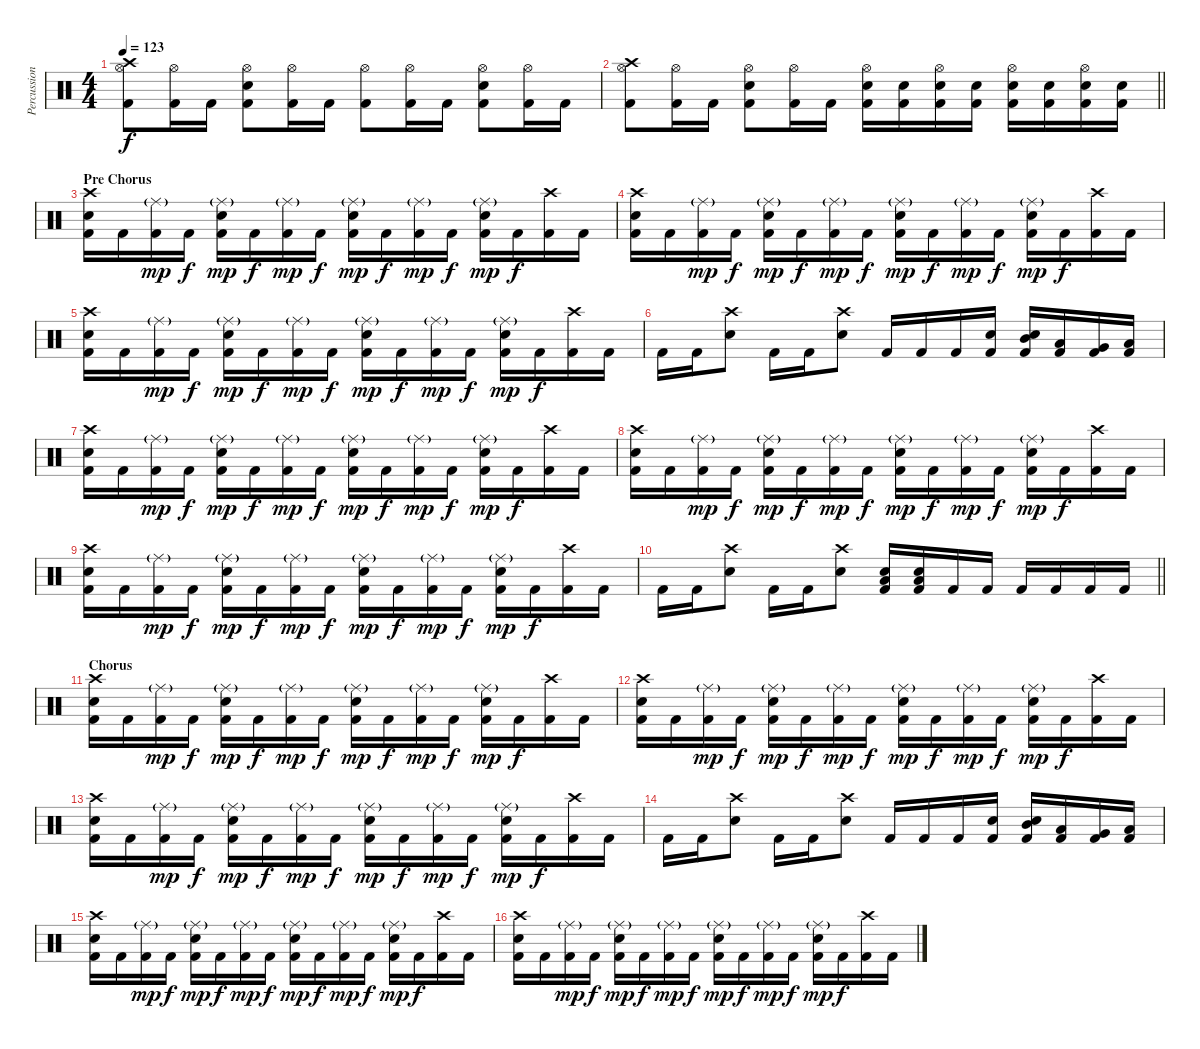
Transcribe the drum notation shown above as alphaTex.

\track ("Percussion" "Percussion") {instrument percussion}
\staff {score}
\articulation defaults
\ts (4 4)
\tempo 123
\clef neutral
\ks c
("Hi-Hat (open)" "Kick (hit) 2" "Crash high (hit)").8{dy f} ("Hi-Hat (open)" "Kick (hit) 2").16 "Kick (hit) 2".16 ("Hi-Hat (open)" "Snare (hit) 2" "Kick (hit) 2").8 ("Hi-Hat (open)" "Kick (hit) 2").16 "Kick (hit) 2".16 ("Hi-Hat (open)" "Kick (hit) 2").8 ("Hi-Hat (open)" "Kick (hit) 2").16 "Kick (hit) 2".16 ("Hi-Hat (open)" "Snare (hit) 2" "Kick (hit) 2").8 ("Hi-Hat (open)" "Kick (hit) 2").16 "Kick (hit) 2".16 |
\barLineRight lightlight
("Hi-Hat (open)" "Kick (hit) 2" "Crash high (hit)").8 ("Hi-Hat (open)" "Kick (hit) 2").16 "Kick (hit) 2".16 ("Hi-Hat (open)" "Snare (hit) 2" "Kick (hit) 2").8 ("Hi-Hat (open)" "Kick (hit) 2").16 "Kick (hit) 2".16 ("Hi-Hat (open)" "Snare (hit) 2" "Kick (hit) 2").16 ("Snare (hit) 2" "Kick (hit) 2").16 ("Hi-Hat (open)" "Snare (hit) 2" "Kick (hit) 2").16 ("Snare (hit) 2" "Kick (hit) 2").16 ("Hi-Hat (open)" "Snare (hit) 2" "Kick (hit) 2").16 ("Snare (hit) 2" "Kick (hit) 2").16 ("Hi-Hat (open)" "Snare (hit) 2" "Kick (hit) 2").16 ("Snare (hit) 2" "Kick (hit) 2").16 |
\section ("" "Pre Chorus")
("Snare (hit) 2" "Kick (hit) 2" "Crash high (hit)").16 "Kick (hit) 2".16 ("Ride (middle)"{g} "Kick (hit) 2").16{dy mp} "Kick (hit) 2".16{dy f} ("Ride (middle)"{g} "Snare (hit) 2" "Kick (hit) 2").16{dy mp} "Kick (hit) 2".16{dy f} ("Ride (middle)"{g} "Kick (hit) 2").16{dy mp} "Kick (hit) 2".16{dy f} ("Ride (middle)"{g} "Snare (hit) 2" "Kick (hit) 2").16{dy mp} "Kick (hit) 2".16{dy f} ("Ride (middle)"{g} "Kick (hit) 2").16{dy mp} "Kick (hit) 2".16{dy f} ("Ride (middle)"{g} "Snare (hit) 2" "Kick (hit) 2").16{dy mp} "Kick (hit) 2".16{dy f} ("Kick (hit) 2" "Crash high (hit)").16 "Kick (hit) 2".16 |
("Snare (hit) 2" "Kick (hit) 2" "Crash high (hit)").16 "Kick (hit) 2".16 ("Ride (middle)"{g} "Kick (hit) 2").16{dy mp} "Kick (hit) 2".16{dy f} ("Ride (middle)"{g} "Snare (hit) 2" "Kick (hit) 2").16{dy mp} "Kick (hit) 2".16{dy f} ("Ride (middle)"{g} "Kick (hit) 2").16{dy mp} "Kick (hit) 2".16{dy f} ("Ride (middle)"{g} "Snare (hit) 2" "Kick (hit) 2").16{dy mp} "Kick (hit) 2".16{dy f} ("Ride (middle)"{g} "Kick (hit) 2").16{dy mp} "Kick (hit) 2".16{dy f} ("Ride (middle)"{g} "Snare (hit) 2" "Kick (hit) 2").16{dy mp} "Kick (hit) 2".16{dy f} ("Kick (hit) 2" "Crash high (hit)").16 "Kick (hit) 2".16 |
("Snare (hit) 2" "Kick (hit) 2" "Crash high (hit)").16 "Kick (hit) 2".16 ("Ride (middle)"{g} "Kick (hit) 2").16{dy mp} "Kick (hit) 2".16{dy f} ("Ride (middle)"{g} "Snare (hit) 2" "Kick (hit) 2").16{dy mp} "Kick (hit) 2".16{dy f} ("Ride (middle)"{g} "Kick (hit) 2").16{dy mp} "Kick (hit) 2".16{dy f} ("Ride (middle)"{g} "Snare (hit) 2" "Kick (hit) 2").16{dy mp} "Kick (hit) 2".16{dy f} ("Ride (middle)"{g} "Kick (hit) 2").16{dy mp} "Kick (hit) 2".16{dy f} ("Ride (middle)"{g} "Snare (hit) 2" "Kick (hit) 2").16{dy mp} "Kick (hit) 2".16{dy f} ("Kick (hit) 2" "Crash high (hit)").16 "Kick (hit) 2".16 |
"Kick (hit) 2".16 "Kick (hit) 2".16 ("Snare (hit) 2" "Crash high (hit)").8 "Kick (hit) 2".16 "Kick (hit) 2".16 ("Snare (hit) 2" "Crash high (hit)").8 "Kick (hit) 2".16 "Kick (hit) 2".16 "Kick (hit) 2".16 ("Snare (hit) 2" "Kick (hit) 2").16 ("Mid Tom (hit)" "Snare (hit) 2" "Kick (hit) 2").16 ("Low Tom (hit)" "Kick (hit) 2").16 ("Very Low Tom (hit)" "Kick (hit) 2").16 ("Low Floor Tom (hit)" "Kick (hit) 2").16 |
("Snare (hit) 2" "Kick (hit) 2" "Crash high (hit)").16 "Kick (hit) 2".16 ("Ride (middle)"{g} "Kick (hit) 2").16{dy mp} "Kick (hit) 2".16{dy f} ("Ride (middle)"{g} "Snare (hit) 2" "Kick (hit) 2").16{dy mp} "Kick (hit) 2".16{dy f} ("Ride (middle)"{g} "Kick (hit) 2").16{dy mp} "Kick (hit) 2".16{dy f} ("Ride (middle)"{g} "Snare (hit) 2" "Kick (hit) 2").16{dy mp} "Kick (hit) 2".16{dy f} ("Ride (middle)"{g} "Kick (hit) 2").16{dy mp} "Kick (hit) 2".16{dy f} ("Ride (middle)"{g} "Snare (hit) 2" "Kick (hit) 2").16{dy mp} "Kick (hit) 2".16{dy f} ("Kick (hit) 2" "Crash high (hit)").16 "Kick (hit) 2".16 |
("Snare (hit) 2" "Kick (hit) 2" "Crash high (hit)").16 "Kick (hit) 2".16 ("Ride (middle)"{g} "Kick (hit) 2").16{dy mp} "Kick (hit) 2".16{dy f} ("Ride (middle)"{g} "Snare (hit) 2" "Kick (hit) 2").16{dy mp} "Kick (hit) 2".16{dy f} ("Ride (middle)"{g} "Kick (hit) 2").16{dy mp} "Kick (hit) 2".16{dy f} ("Ride (middle)"{g} "Snare (hit) 2" "Kick (hit) 2").16{dy mp} "Kick (hit) 2".16{dy f} ("Ride (middle)"{g} "Kick (hit) 2").16{dy mp} "Kick (hit) 2".16{dy f} ("Ride (middle)"{g} "Snare (hit) 2" "Kick (hit) 2").16{dy mp} "Kick (hit) 2".16{dy f} ("Kick (hit) 2" "Crash high (hit)").16 "Kick (hit) 2".16 |
("Snare (hit) 2" "Kick (hit) 2" "Crash high (hit)").16 "Kick (hit) 2".16 ("Ride (middle)"{g} "Kick (hit) 2").16{dy mp} "Kick (hit) 2".16{dy f} ("Ride (middle)"{g} "Snare (hit) 2" "Kick (hit) 2").16{dy mp} "Kick (hit) 2".16{dy f} ("Ride (middle)"{g} "Kick (hit) 2").16{dy mp} "Kick (hit) 2".16{dy f} ("Ride (middle)"{g} "Snare (hit) 2" "Kick (hit) 2").16{dy mp} "Kick (hit) 2".16{dy f} ("Ride (middle)"{g} "Kick (hit) 2").16{dy mp} "Kick (hit) 2".16{dy f} ("Ride (middle)"{g} "Snare (hit) 2" "Kick (hit) 2").16{dy mp} "Kick (hit) 2".16{dy f} ("Kick (hit) 2" "Crash high (hit)").16 "Kick (hit) 2".16 |
\barLineRight lightlight "Kick (hit) 2".16 "Kick (hit) 2".16
("Snare (hit) 2" "Crash high (hit)").8 "Kick (hit) 2".16 "Kick (hit) 2".16 ("Snare (hit) 2" "Crash high (hit)").8 ("Low Floor Tom (hit)" "Snare (hit) 2" "Kick (hit) 2").16 ("Low Floor Tom (hit)" "Snare (hit) 2" "Kick (hit) 2").16 "Kick (hit) 2".16 "Kick (hit) 2".16 "Kick (hit) 2".16 "Kick (hit) 2".16 "Kick (hit) 2".16 "Kick (hit) 2".16 |
\section ("" "Chorus")
("Snare (hit) 2" "Kick (hit) 2" "Crash high (hit)").16 "Kick (hit) 2".16 ("Ride (middle)"{g} "Kick (hit) 2").16{dy mp} "Kick (hit) 2".16{dy f} ("Ride (middle)"{g} "Snare (hit) 2" "Kick (hit) 2").16{dy mp} "Kick (hit) 2".16{dy f} ("Ride (middle)"{g} "Kick (hit) 2").16{dy mp} "Kick (hit) 2".16{dy f} ("Ride (middle)"{g} "Snare (hit) 2" "Kick (hit) 2").16{dy mp} "Kick (hit) 2".16{dy f} ("Ride (middle)"{g} "Kick (hit) 2").16{dy mp} "Kick (hit) 2".16{dy f} ("Ride (middle)"{g} "Snare (hit) 2" "Kick (hit) 2").16{dy mp} "Kick (hit) 2".16{dy f} ("Kick (hit) 2" "Crash high (hit)").16 "Kick (hit) 2".16 |
("Snare (hit) 2" "Kick (hit) 2" "Crash high (hit)").16 "Kick (hit) 2".16 ("Ride (middle)"{g} "Kick (hit) 2").16{dy mp} "Kick (hit) 2".16{dy f} ("Ride (middle)"{g} "Snare (hit) 2" "Kick (hit) 2").16{dy mp} "Kick (hit) 2".16{dy f} ("Ride (middle)"{g} "Kick (hit) 2").16{dy mp} "Kick (hit) 2".16{dy f} ("Ride (middle)"{g} "Snare (hit) 2" "Kick (hit) 2").16{dy mp} "Kick (hit) 2".16{dy f} ("Ride (middle)"{g} "Kick (hit) 2").16{dy mp} "Kick (hit) 2".16{dy f} ("Ride (middle)"{g} "Snare (hit) 2" "Kick (hit) 2").16{dy mp} "Kick (hit) 2".16{dy f} ("Kick (hit) 2" "Crash high (hit)").16 "Kick (hit) 2".16 |
("Snare (hit) 2" "Kick (hit) 2" "Crash high (hit)").16 "Kick (hit) 2".16 ("Ride (middle)"{g} "Kick (hit) 2").16{dy mp} "Kick (hit) 2".16{dy f} ("Ride (middle)"{g} "Snare (hit) 2" "Kick (hit) 2").16{dy mp} "Kick (hit) 2".16{dy f} ("Ride (middle)"{g} "Kick (hit) 2").16{dy mp} "Kick (hit) 2".16{dy f} ("Ride (middle)"{g} "Snare (hit) 2" "Kick (hit) 2").16{dy mp} "Kick (hit) 2".16{dy f} ("Ride (middle)"{g} "Kick (hit) 2").16{dy mp} "Kick (hit) 2".16{dy f} ("Ride (middle)"{g} "Snare (hit) 2" "Kick (hit) 2").16{dy mp} "Kick (hit) 2".16{dy f} ("Kick (hit) 2" "Crash high (hit)").16 "Kick (hit) 2".16 |
"Kick (hit) 2".16 "Kick (hit) 2".16 ("Snare (hit) 2" "Crash high (hit)").8 "Kick (hit) 2".16 "Kick (hit) 2".16 ("Snare (hit) 2" "Crash high (hit)").8 "Kick (hit) 2".16 "Kick (hit) 2".16 "Kick (hit) 2".16 ("Snare (hit) 2" "Kick (hit) 2").16 ("Mid Tom (hit)" "Snare (hit) 2" "Kick (hit) 2").16 ("Low Tom (hit)" "Kick (hit) 2").16 ("Very Low Tom (hit)" "Kick (hit) 2").16 ("Low Floor Tom (hit)" "Kick (hit) 2").16 |
("Snare (hit) 2" "Kick (hit) 2" "Crash high (hit)").16 "Kick (hit) 2".16 ("Ride (middle)"{g} "Kick (hit) 2").16{dy mp} "Kick (hit) 2".16{dy f} ("Ride (middle)"{g} "Snare (hit) 2" "Kick (hit) 2").16{dy mp} "Kick (hit) 2".16{dy f} ("Ride (middle)"{g} "Kick (hit) 2").16{dy mp} "Kick (hit) 2".16{dy f} ("Ride (middle)"{g} "Snare (hit) 2" "Kick (hit) 2").16{dy mp} "Kick (hit) 2".16{dy f} ("Ride (middle)"{g} "Kick (hit) 2").16{dy mp} "Kick (hit) 2".16{dy f} ("Ride (middle)"{g} "Snare (hit) 2" "Kick (hit) 2").16{dy mp} "Kick (hit) 2".16{dy f} ("Kick (hit) 2" "Crash high (hit)").16 "Kick (hit) 2".16 |
("Snare (hit) 2" "Kick (hit) 2" "Crash high (hit)").16 "Kick (hit) 2".16 ("Ride (middle)"{g} "Kick (hit) 2").16{dy mp} "Kick (hit) 2".16{dy f} ("Ride (middle)"{g} "Snare (hit) 2" "Kick (hit) 2").16{dy mp} "Kick (hit) 2".16{dy f} ("Ride (middle)"{g} "Kick (hit) 2").16{dy mp} "Kick (hit) 2".16{dy f} ("Ride (middle)"{g} "Snare (hit) 2" "Kick (hit) 2").16{dy mp} "Kick (hit) 2".16{dy f} ("Ride (middle)"{g} "Kick (hit) 2").16{dy mp} "Kick (hit) 2".16{dy f} ("Ride (middle)"{g} "Snare (hit) 2" "Kick (hit) 2").16{dy mp} "Kick (hit) 2".16{dy f} ("Kick (hit) 2" "Crash high (hit)").16 "Kick (hit) 2".16
